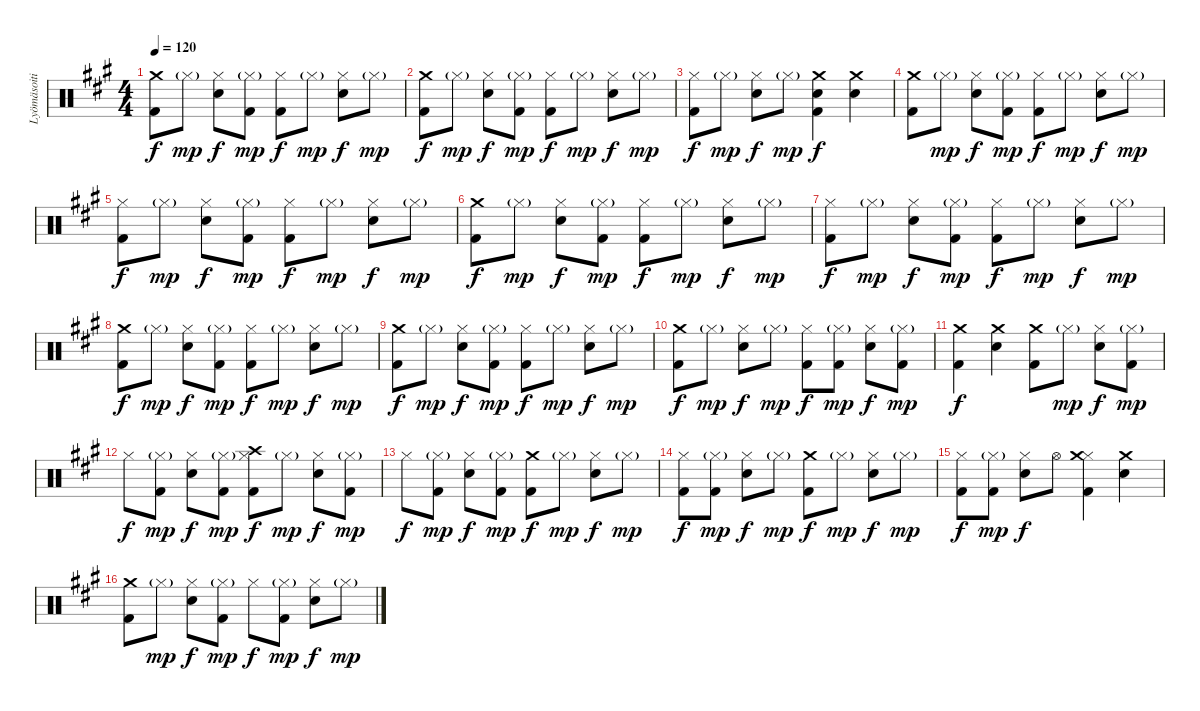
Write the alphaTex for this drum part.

\track ("Lyömäsoitin" "Lyömäsoiti") {instrument percussion}
\staff {score}
\articulation defaults
\ts (4 4)
\tempo 120
\clef neutral
\ks f#minor
("Crash medium (hit)" "Kick (hit) 2").8{dy f} "Hi-Hat (closed)"{g}.8{dy mp} ("Hi-Hat (closed)" "Snare (hit) 2").8{dy f} ("Hi-Hat (closed)"{g} "Kick (hit) 2").8{dy mp} ("Hi-Hat (closed)" "Kick (hit) 2").8{dy f} "Hi-Hat (closed)"{g}.8{dy mp} ("Hi-Hat (closed)" "Snare (hit) 2").8{dy f} "Hi-Hat (closed)"{g}.8{dy mp} |
("Kick (hit) 2" "Crash medium (hit)").8{dy f} "Hi-Hat (closed)"{g}.8{dy mp} ("Hi-Hat (closed)" "Snare (hit) 2").8{dy f} ("Hi-Hat (closed)"{g} "Kick (hit) 2").8{dy mp} ("Hi-Hat (closed)" "Kick (hit) 2").8{dy f} "Hi-Hat (closed)"{g}.8{dy mp} ("Hi-Hat (closed)" "Snare (hit) 2").8{dy f} "Hi-Hat (closed)"{g}.8{dy mp} |
("Kick (hit) 2" "Hi-Hat (closed)").8{dy f} "Hi-Hat (closed)"{g}.8{dy mp} ("Hi-Hat (closed)" "Snare (hit) 2").8{dy f} "Hi-Hat (closed)"{g}.8{dy mp} ("Snare (hit) 2" "Crash medium (hit)" "Kick (hit) 2").4{dy f} ("Snare (hit) 2" "Crash medium (hit)").4 |
("Kick (hit) 2" "Crash medium (hit)").8 "Hi-Hat (closed)"{g}.8{dy mp} ("Hi-Hat (closed)" "Snare (hit) 2").8{dy f} ("Hi-Hat (closed)"{g} "Kick (hit) 2").8{dy mp} ("Hi-Hat (closed)" "Kick (hit) 2").8{dy f} "Hi-Hat (closed)"{g}.8{dy mp} ("Hi-Hat (closed)" "Snare (hit) 2").8{dy f} "Hi-Hat (closed)"{g}.8{dy mp} |
("Hi-Hat (closed)" "Kick (hit) 2").8{dy f} "Hi-Hat (closed)"{g}.8{dy mp} ("Hi-Hat (closed)" "Snare (hit) 2").8{dy f} ("Hi-Hat (closed)"{g} "Kick (hit) 2").8{dy mp} ("Hi-Hat (closed)" "Kick (hit) 2").8{dy f} "Hi-Hat (closed)"{g}.8{dy mp} ("Hi-Hat (closed)" "Snare (hit) 2").8{dy f} "Hi-Hat (closed)"{g}.8{dy mp} |
("Kick (hit) 2" "Crash medium (hit)").8{dy f} "Hi-Hat (closed)"{g}.8{dy mp} ("Snare (hit) 2" "Hi-Hat (closed)").8{dy f} ("Hi-Hat (closed)"{g} "Kick (hit) 2").8{dy mp} ("Hi-Hat (closed)" "Kick (hit) 2").8{dy f} "Hi-Hat (closed)"{g}.8{dy mp} ("Hi-Hat (closed)" "Snare (hit) 2").8{dy f} "Hi-Hat (closed)"{g}.8{dy mp} |
("Hi-Hat (closed)" "Kick (hit) 2").8{dy f} "Hi-Hat (closed)"{g}.8{dy mp} ("Hi-Hat (closed)" "Snare (hit) 2").8{dy f} ("Hi-Hat (closed)"{g} "Kick (hit) 2").8{dy mp} ("Hi-Hat (closed)" "Kick (hit) 2").8{dy f} "Hi-Hat (closed)"{g}.8{dy mp} ("Hi-Hat (closed)" "Snare (hit) 2").8{dy f} "Hi-Hat (closed)"{g}.8{dy mp} |
("Kick (hit) 2" "Crash medium (hit)").8{dy f} "Hi-Hat (closed)"{g}.8{dy mp} ("Snare (hit) 2" "Hi-Hat (closed)").8{dy f} ("Hi-Hat (closed)"{g} "Kick (hit) 2").8{dy mp} ("Hi-Hat (closed)" "Kick (hit) 2").8{dy f} "Hi-Hat (closed)"{g}.8{dy mp} ("Hi-Hat (closed)" "Snare (hit) 2").8{dy f} "Hi-Hat (closed)"{g}.8{dy mp} |
("Crash medium (hit)" "Kick (hit) 2").8{dy f} "Hi-Hat (closed)"{g}.8{dy mp} ("Hi-Hat (closed)" "Snare (hit) 2").8{dy f} ("Hi-Hat (closed)"{g} "Kick (hit) 2").8{dy mp} ("Hi-Hat (closed)" "Kick (hit) 2").8{dy f} "Hi-Hat (closed)"{g}.8{dy mp} ("Hi-Hat (closed)" "Snare (hit) 2").8{dy f} "Hi-Hat (closed)"{g}.8{dy mp} |
("Kick (hit) 2" "Crash medium (hit)").8{dy f} "Hi-Hat (closed)"{g}.8{dy mp} ("Hi-Hat (closed)" "Snare (hit) 2").8{dy f} "Hi-Hat (closed)"{g}.8{dy mp} ("Kick (hit) 2" "Hi-Hat (closed)").8{dy f} ("Hi-Hat (closed)"{g} "Kick (hit) 2").8{dy mp} ("Snare (hit) 2" "Hi-Hat (closed)").8{dy f} ("Hi-Hat (closed)"{g} "Kick (hit) 2").8{dy mp} |
("Kick (hit) 2" "Crash medium (hit)").4{dy f} ("Snare (hit) 2" "Crash medium (hit)").4 ("Kick (hit) 2" "Crash medium (hit)").8 "Hi-Hat (closed)"{g}.8{dy mp} ("Hi-Hat (closed)" "Snare (hit) 2").8{dy f} ("Hi-Hat (closed)"{g} "Kick (hit) 2").8{dy mp} |
"Hi-Hat (closed)".8{dy f} ("Kick (hit) 2" "Hi-Hat (closed)"{g}).8{dy mp} ("Hi-Hat (closed)" "Snare (hit) 2").8{dy f} ("Hi-Hat (closed)"{g} "Kick (hit) 2").8{dy mp} ("Hi-Hat (closed)" "Crash high (hit)" "Kick (hit) 2").8{dy f} "Hi-Hat (closed)"{g}.8{dy mp} ("Hi-Hat (closed)" "Snare (hit) 2").8{dy f} ("Hi-Hat (closed)"{g} "Kick (hit) 2").8{dy mp} |
"Hi-Hat (closed)".8{dy f} ("Kick (hit) 2" "Hi-Hat (closed)"{g}).8{dy mp} ("Hi-Hat (closed)" "Snare (hit) 2").8{dy f} ("Hi-Hat (closed)"{g} "Kick (hit) 2").8{dy mp} ("Kick (hit) 2" "Crash medium (hit)").8{dy f} "Hi-Hat (closed)"{g}.8{dy mp} ("Hi-Hat (closed)" "Snare (hit) 2").8{dy f} "Hi-Hat (closed)"{g}.8{dy mp} |
("Hi-Hat (closed)" "Kick (hit) 2").8{dy f} ("Hi-Hat (closed)"{g} "Kick (hit) 2").8{dy mp} ("Hi-Hat (closed)" "Snare (hit) 2").8{dy f} "Hi-Hat (closed)"{g}.8{dy mp} ("Kick (hit) 2" "Crash medium (hit)").8{dy f} "Hi-Hat (closed)"{g}.8{dy mp} ("Hi-Hat (closed)" "Snare (hit) 2").8{dy f} "Hi-Hat (closed)"{g}.8{dy mp} |
("Kick (hit) 2" "Hi-Hat (closed)").8{dy f} ("Hi-Hat (closed)"{g} "Kick (hit) 2").8{dy mp} ("Hi-Hat (closed)" "Snare (hit) 2").8{dy f} "Hi-Hat (open)".8 ("Hi-Hat (closed)" "Kick (hit) 2" "Crash medium (hit)").4 ("Snare (hit) 2" "Crash medium (hit)").4 |
("Kick (hit) 2" "Crash medium (hit)").8 "Hi-Hat (closed)"{g}.8{dy mp} ("Hi-Hat (closed)" "Snare (hit) 2").8{dy f} ("Hi-Hat (closed)"{g} "Kick (hit) 2").8{dy mp} "Hi-Hat (closed)".8{dy f} ("Hi-Hat (closed)"{g} "Kick (hit) 2").8{dy mp} ("Hi-Hat (closed)" "Snare (hit) 2").8{dy f} "Hi-Hat (closed)"{g}.8{dy mp}
